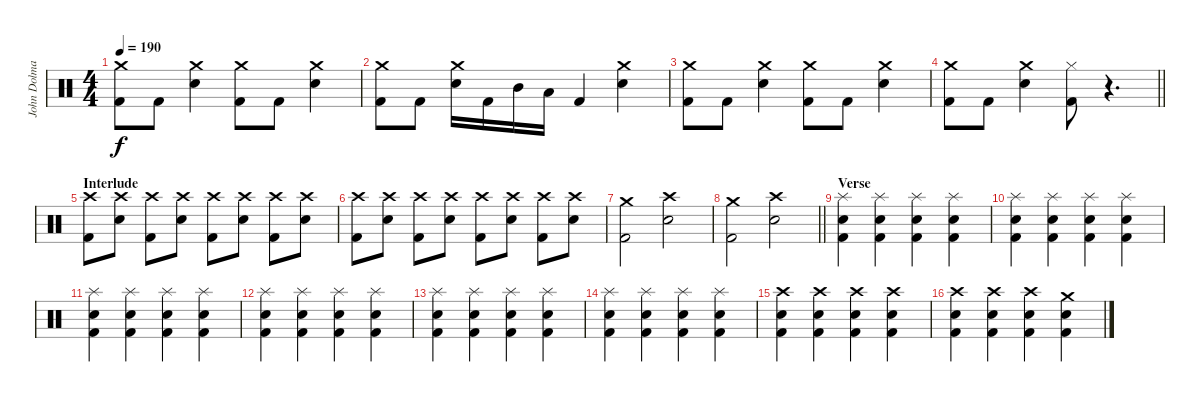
\track ("John Dolmayan" "John Dolma") {instrument percussion}
\staff {score}
\articulation defaults
\ts (4 4)
\tempo 190
\clef neutral
\ks c
("Crash medium (hit)" "Kick (hit) 2").8{dy f} "Kick (hit) 2".8 ("Crash medium (hit)" "Electric Snare (hit)").4 ("Crash medium (hit)" "Kick (hit) 2").8 "Kick (hit) 2".8 ("Crash medium (hit)" "Electric Snare (hit)").4 |
("Crash medium (hit)" "Kick (hit) 2").8 "Kick (hit) 2".8 ("Crash medium (hit)" "Electric Snare (hit)").16 "Kick (hit) 2".16 "Mid Tom (hit)".16 "Low Floor Tom (hit)".16 "Kick (hit) 2".4 ("Crash medium (hit)" "Electric Snare (hit)").4 |
("Crash medium (hit)" "Kick (hit) 2").8 "Kick (hit) 2".8 ("Crash medium (hit)" "Electric Snare (hit)").4 ("Crash medium (hit)" "Kick (hit) 2").8 "Kick (hit) 2".8 ("Crash medium (hit)" "Electric Snare (hit)").4 |
\barLineRight lightlight
("Crash medium (hit)" "Kick (hit) 2").8 "Kick (hit) 2".8 ("Crash medium (hit)" "Electric Snare (hit)").4 ("Hi-Hat (closed)" "Kick (hit) 2").8 r.4{d} |
\section ("" "Interlude")
("Crash high (hit)" "Kick (hit) 2").8 ("Crash high (hit)" "Electric Snare (hit)").8 ("Crash high (hit)" "Kick (hit) 2").8 ("Crash high (hit)" "Electric Snare (hit)").8 ("Crash high (hit)" "Kick (hit) 2").8 ("Crash high (hit)" "Electric Snare (hit)").8 ("Crash high (hit)" "Kick (hit) 2").8 ("Crash high (hit)" "Electric Snare (hit)").8 |
("Crash high (hit)" "Kick (hit) 2").8 ("Crash high (hit)" "Electric Snare (hit)").8 ("Crash high (hit)" "Kick (hit) 2").8 ("Crash high (hit)" "Electric Snare (hit)").8 ("Crash high (hit)" "Kick (hit) 2").8 ("Crash high (hit)" "Electric Snare (hit)").8 ("Crash high (hit)" "Kick (hit) 2").8 ("Crash high (hit)" "Electric Snare (hit)").8 |
("Crash medium (hit)" "Kick (hit) 2").2 ("Crash high (hit)" "Electric Snare (hit)").2 |
\barLineRight lightlight
("Crash medium (hit)" "Kick (hit) 2").2 ("Crash high (hit)" "Electric Snare (hit)").2 |
\section ("" "Verse")
("Splash (hit)" "Electric Snare (hit)" "Kick (hit) 2").4 ("Splash (hit)" "Electric Snare (hit)" "Kick (hit) 2").4 ("Splash (hit)" "Electric Snare (hit)" "Kick (hit) 2").4 ("Splash (hit)" "Electric Snare (hit)" "Kick (hit) 2").4 |
("Splash (hit)" "Electric Snare (hit)" "Kick (hit) 2").4 ("Splash (hit)" "Electric Snare (hit)" "Kick (hit) 2").4 ("Splash (hit)" "Electric Snare (hit)" "Kick (hit) 2").4 ("Splash (hit)" "Electric Snare (hit)" "Kick (hit) 2").4 |
("Splash (hit)" "Electric Snare (hit)" "Kick (hit) 2").4 ("Splash (hit)" "Electric Snare (hit)" "Kick (hit) 2").4 ("Splash (hit)" "Electric Snare (hit)" "Kick (hit) 2").4 ("Splash (hit)" "Electric Snare (hit)" "Kick (hit) 2").4 |
("Splash (hit)" "Electric Snare (hit)" "Kick (hit) 2").4 ("Splash (hit)" "Electric Snare (hit)" "Kick (hit) 2").4 ("Splash (hit)" "Electric Snare (hit)" "Kick (hit) 2").4 ("Splash (hit)" "Electric Snare (hit)" "Kick (hit) 2").4 |
("Splash (hit)" "Electric Snare (hit)" "Kick (hit) 2").4 ("Splash (hit)" "Electric Snare (hit)" "Kick (hit) 2").4 ("Splash (hit)" "Electric Snare (hit)" "Kick (hit) 2").4 ("Splash (hit)" "Electric Snare (hit)" "Kick (hit) 2").4 |
("Splash (hit)" "Electric Snare (hit)" "Kick (hit) 2").4 ("Splash (hit)" "Electric Snare (hit)" "Kick (hit) 2").4 ("Splash (hit)" "Electric Snare (hit)" "Kick (hit) 2").4 ("Splash (hit)" "Electric Snare (hit)" "Kick (hit) 2").4 |
("Crash high (hit)" "Electric Snare (hit)" "Kick (hit) 2").4 ("Crash high (hit)" "Electric Snare (hit)" "Kick (hit) 2").4 ("Crash high (hit)" "Electric Snare (hit)" "Kick (hit) 2").4 ("Crash high (hit)" "Electric Snare (hit)" "Kick (hit) 2").4 |
("Crash high (hit)" "Electric Snare (hit)" "Kick (hit) 2").4 ("Crash high (hit)" "Electric Snare (hit)" "Kick (hit) 2").4 ("Crash high (hit)" "Electric Snare (hit)" "Kick (hit) 2").4 ("Crash medium (hit)" "Electric Snare (hit)" "Kick (hit) 2").4
